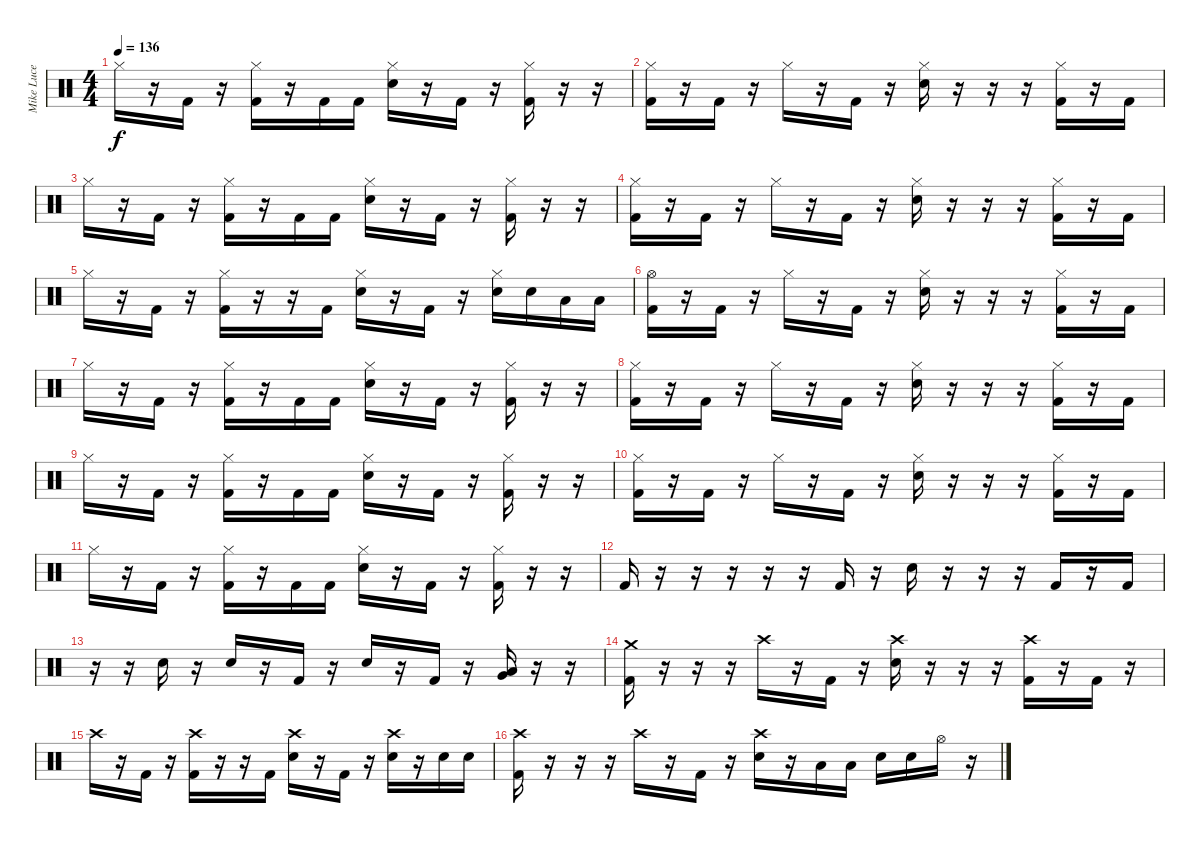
\track ("Mike Luce" "Mike Luce") {instrument percussion}
\staff {score}
\articulation defaults
\ts (4 4)
\tempo 136
\clef neutral
\ks c "Hi-Hat (closed)".16{dy f}
r.16 "Kick (hit) 2".16 r.16 ("Hi-Hat (closed)" "Kick (hit) 2").16 r.16 "Kick (hit) 2".16 "Kick (hit) 2".16 ("Hi-Hat (closed)" "Electric Snare (hit)").16 r.16 "Kick (hit) 2".16 r.16 ("Hi-Hat (closed)" "Kick (hit) 2").16 r.16 r.16 |
("Hi-Hat (closed)" "Kick (hit) 2").16 r.16 "Kick (hit) 2".16 r.16 "Hi-Hat (closed)".16 r.16 "Kick (hit) 2".16 r.16 ("Hi-Hat (closed)" "Electric Snare (hit)").16 r.16 r.16 r.16 ("Hi-Hat (closed)" "Kick (hit) 2").16 r.16 "Kick (hit) 2".16 |
"Hi-Hat (closed)".16 r.16 "Kick (hit) 2".16 r.16 ("Hi-Hat (closed)" "Kick (hit) 2").16 r.16 "Kick (hit) 2".16 "Kick (hit) 2".16 ("Hi-Hat (closed)" "Electric Snare (hit)").16 r.16 "Kick (hit) 2".16 r.16 ("Hi-Hat (closed)" "Kick (hit) 2").16 r.16 r.16 |
("Hi-Hat (closed)" "Kick (hit) 2").16 r.16 "Kick (hit) 2".16 r.16 "Hi-Hat (closed)".16 r.16 "Kick (hit) 2".16 r.16 ("Hi-Hat (closed)" "Electric Snare (hit)").16 r.16 r.16 r.16 ("Hi-Hat (closed)" "Kick (hit) 2").16 r.16 "Kick (hit) 2".16 |
"Hi-Hat (closed)".16 r.16 "Kick (hit) 2".16 r.16 ("Hi-Hat (closed)" "Kick (hit) 2").16 r.16 r.16 "Kick (hit) 2".16 ("Hi-Hat (closed)" "Electric Snare (hit)").16 r.16 "Kick (hit) 2".16 r.16 ("Hi-Hat (closed)" "Electric Snare (hit)").16 "Electric Snare (hit)".16 "Low Tom (hit)".16 "Low Tom (hit)".16 |
("Hi-Hat (open)" "Kick (hit) 2").16 r.16 "Kick (hit) 2".16 r.16 "Hi-Hat (closed)".16 r.16 "Kick (hit) 2".16 r.16 ("Hi-Hat (closed)" "Electric Snare (hit)").16 r.16 r.16 r.16 ("Hi-Hat (closed)" "Kick (hit) 2").16 r.16 "Kick (hit) 2".16 |
"Hi-Hat (closed)".16 r.16 "Kick (hit) 2".16 r.16 ("Hi-Hat (closed)" "Kick (hit) 2").16 r.16 "Kick (hit) 2".16 "Kick (hit) 2".16 ("Hi-Hat (closed)" "Electric Snare (hit)").16 r.16 "Kick (hit) 2".16 r.16 ("Hi-Hat (closed)" "Kick (hit) 2").16 r.16 r.16 |
("Hi-Hat (closed)" "Kick (hit) 2").16 r.16 "Kick (hit) 2".16 r.16 "Hi-Hat (closed)".16 r.16 "Kick (hit) 2".16 r.16 ("Hi-Hat (closed)" "Electric Snare (hit)").16 r.16 r.16 r.16 ("Hi-Hat (closed)" "Kick (hit) 2").16 r.16 "Kick (hit) 2".16 |
"Hi-Hat (closed)".16 r.16 "Kick (hit) 2".16 r.16 ("Hi-Hat (closed)" "Kick (hit) 2").16 r.16 "Kick (hit) 2".16 "Kick (hit) 2".16 ("Hi-Hat (closed)" "Electric Snare (hit)").16 r.16 "Kick (hit) 2".16 r.16 ("Hi-Hat (closed)" "Kick (hit) 2").16 r.16 r.16 |
("Hi-Hat (closed)" "Kick (hit) 2").16 r.16 "Kick (hit) 2".16 r.16 "Hi-Hat (closed)".16 r.16 "Kick (hit) 2".16 r.16 ("Hi-Hat (closed)" "Electric Snare (hit)").16 r.16 r.16 r.16 ("Hi-Hat (closed)" "Kick (hit) 2").16 r.16 "Kick (hit) 2".16 |
"Hi-Hat (closed)".16 r.16 "Kick (hit) 2".16 r.16 ("Hi-Hat (closed)" "Kick (hit) 2").16 r.16 "Kick (hit) 2".16 "Kick (hit) 2".16 ("Hi-Hat (closed)" "Electric Snare (hit)").16 r.16 "Kick (hit) 2".16 r.16 ("Hi-Hat (closed)" "Kick (hit) 2").16 r.16 r.16 |
"Kick (hit) 2".16 r.16 r.16 r.16 r.16 r.16 "Kick (hit) 2".16 r.16 "Hand Clap (hit)".16 r.16 r.16 r.16 "Kick (hit) 2".16 r.16 "Kick (hit) 2".16 |
r.16 r.16 "Hand Clap (hit)".16 r.16 "Hand Clap (hit)".16 r.16 "Kick (hit) 2".16 r.16 "Hand Clap (hit)".16 r.16 "Kick (hit) 2".16 r.16 ("Low Tom (hit)" "Very Low Tom (hit)").16 r.16 r.16 |
("Crash medium (hit)" "Kick (hit) 2").16 r.16 r.16 r.16 "Crash high (hit)".16 r.16 "Kick (hit) 2".16 r.16 ("Crash high (hit)" "Electric Snare (hit)").16 r.16 r.16 r.16 ("Crash high (hit)" "Kick (hit) 2").16 r.16 "Kick (hit) 2".16 r.16 |
"Crash high (hit)".16 r.16 "Kick (hit) 2".16 r.16 ("Crash high (hit)" "Kick (hit) 2").16 r.16 r.16 "Kick (hit) 2".16 ("Crash high (hit)" "Electric Snare (hit)").16 r.16 "Kick (hit) 2".16 r.16 ("Crash high (hit)" "Electric Snare (hit)").16 r.16 "Electric Snare (hit)".16 "Electric Snare (hit)".16 |
("Crash high (hit)" "Kick (hit) 2").16 r.16 r.16 r.16 "Crash high (hit)".16 r.16 "Kick (hit) 2".16 r.16 ("Crash high (hit)" "Electric Snare (hit)").16 r.16 "Low Tom (hit)".16 "Low Tom (hit)".16 "Electric Snare (hit)".16 "Electric Snare (hit)".16 "Hi-Hat (open)".16 r.16
